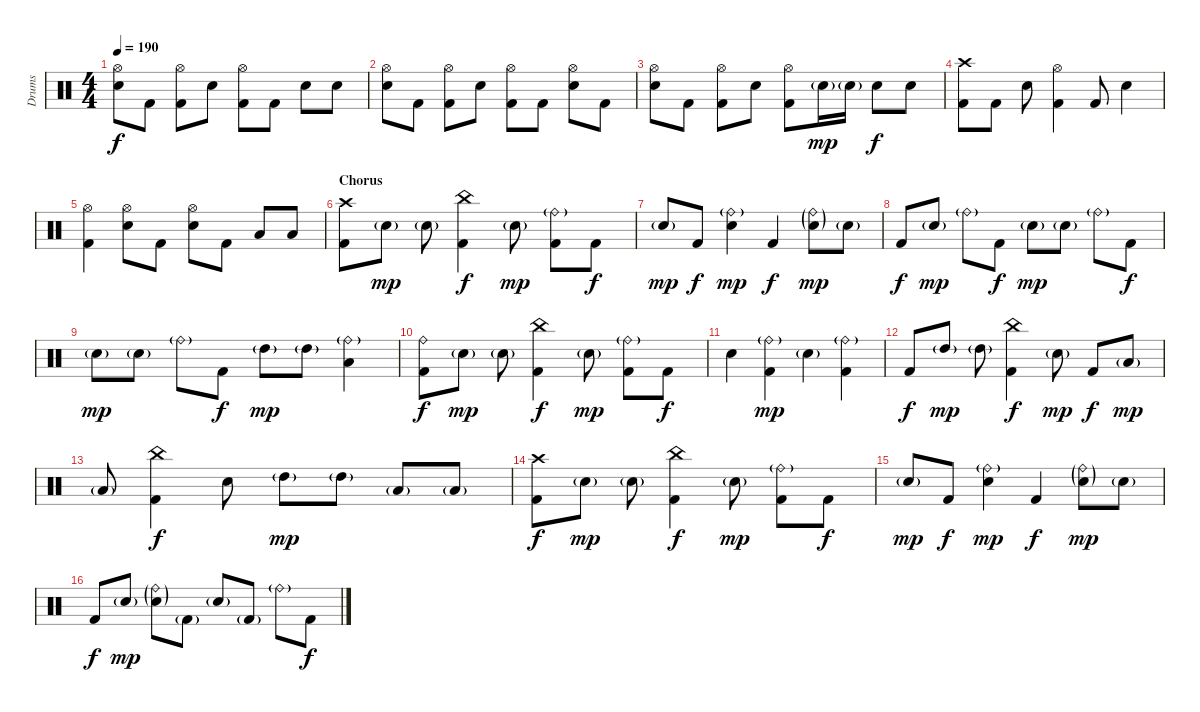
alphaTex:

\track ("Drums" "Drums") {instrument percussion}
\staff {score}
\articulation defaults
\ts (4 4)
\tempo 190
\clef neutral
\ks c
("Hi-Hat (open)" "Snare (hit) 2").8{dy f} "Kick (hit) 2".8 ("Hi-Hat (open)" "Kick (hit) 2").8 "Snare (hit) 2".8 ("Hi-Hat (open)" "Kick (hit) 2").8 "Kick (hit) 2".8 "Snare (hit) 2".8 "Snare (hit) 2".8 |
("Hi-Hat (open)" "Snare (hit) 2").8 "Kick (hit) 2".8 ("Hi-Hat (open)" "Kick (hit) 2").8 "Snare (hit) 2".8 ("Hi-Hat (open)" "Kick (hit) 2").8 "Kick (hit) 2".8 ("Hi-Hat (open)" "Snare (hit) 2").8 "Kick (hit) 2".8 |
("Hi-Hat (open)" "Snare (hit) 2").8 "Kick (hit) 2".8 ("Hi-Hat (open)" "Kick (hit) 2").8 "Snare (hit) 2".8 ("Hi-Hat (open)" "Kick (hit) 2").8 "Snare (hit) 2"{g}.16{dy mp} "Snare (hit) 2"{g}.16 "Snare (hit) 2".8{dy f} "Snare (hit) 2".8 |
("Crash high (hit)" "Kick (hit) 2").8 "Kick (hit) 2".8 "Snare (hit) 2".8 ("Hi-Hat (open)" "Kick (hit) 2").4 "Kick (hit) 2".8 "Snare (hit) 2".4 |
("Hi-Hat (open)" "Kick (hit) 2").4 ("Hi-Hat (open)" "Snare (hit) 2").8 "Kick (hit) 2".8 ("Hi-Hat (open)" "Snare (hit) 2").8 "Kick (hit) 2".8 "Low Tom (hit)".8 "Low Tom (hit)".8 |
\section ("" "Chorus")
("Crash high (hit)" "Kick (hit) 2").8 "Snare (hit) 2"{g}.8{dy mp} "Snare (hit) 2"{g}.8 ("China (hit)" "Kick (hit) 2").4{dy f} "Snare (hit) 2"{g}.8{dy mp} ("Ride (bell)"{g} "Kick (hit) 2").8 "Kick (hit) 2".8{dy f} |
"Snare (hit) 2"{g}.8{dy mp} "Kick (hit) 2".8{dy f} ("Ride (bell)"{g} "Snare (hit) 2").4{dy mp} "Kick (hit) 2".4{dy f} ("Ride (bell)"{g} "Snare (hit) 2"{g}).8{dy mp} "Snare (hit) 2"{g}.8 |
"Kick (hit) 2".8{dy f} "Snare (hit) 2"{g}.8{dy mp} "Ride (bell)"{g}.8 "Kick (hit) 2".8{dy f} "Snare (hit) 2"{g}.8{dy mp} "Snare (hit) 2"{g}.8 "Ride (bell)"{g}.8 "Kick (hit) 2".8{dy f} |
"Snare (hit) 2"{g}.8{dy mp} "Snare (hit) 2"{g}.8 "Ride (bell)"{g}.8 "Kick (hit) 2".8{dy f} "High Tom (hit)"{g}.8{dy mp} "High Tom (hit)"{g}.8 ("Ride (bell)"{g} "Low Tom (hit)").4 |
("Ride (bell)" "Kick (hit) 2").8{dy f} "Snare (hit) 2"{g}.8{dy mp} "Snare (hit) 2"{g}.8 ("China (hit)" "Kick (hit) 2").4{dy f} "Snare (hit) 2"{g}.8{dy mp} ("Ride (bell)"{g} "Kick (hit) 2").8 "Kick (hit) 2".8{dy f} |
"Snare (hit) 2".4 ("Ride (bell)"{g} "Kick (hit) 2").4{dy mp} "Snare (hit) 2"{g}.4 ("Ride (bell)"{g} "Kick (hit) 2").4 |
"Kick (hit) 2".8{dy f} "High Tom (hit)"{g}.8{dy mp} "High Tom (hit)"{g}.8 ("China (hit)" "Kick (hit) 2").4{dy f} "Snare (hit) 2"{g}.8{dy mp} "Kick (hit) 2".8{dy f} "Low Tom (hit)"{g}.8{dy mp} |
"Low Tom (hit)"{g}.8 ("China (hit)" "Kick (hit) 2").4{dy f} "Snare (hit) 2".8 "High Tom (hit)"{g}.8{dy mp} "High Tom (hit)"{g}.8 "Low Tom (hit)"{g}.8 "Low Tom (hit)"{g}.8 |
("Crash high (hit)" "Kick (hit) 2").8{dy f} "Snare (hit) 2"{g}.8{dy mp} "Snare (hit) 2"{g}.8 ("China (hit)" "Kick (hit) 2").4{dy f} "Snare (hit) 2"{g}.8{dy mp} ("Ride (bell)"{g} "Kick (hit) 2").8 "Kick (hit) 2".8{dy f} |
"Snare (hit) 2"{g}.8{dy mp} "Kick (hit) 2".8{dy f} ("Ride (bell)"{g} "Snare (hit) 2").4{dy mp} "Kick (hit) 2".4{dy f} ("Ride (bell)"{g} "Snare (hit) 2"{g}).8{dy mp} "Snare (hit) 2"{g}.8 |
"Kick (hit) 2".8{dy f} "Snare (hit) 2"{g}.8{dy mp} ("Ride (bell)"{g} "Snare (hit) 2"{g}).8 "Kick (hit) 2"{g}.8 "Snare (hit) 2"{g}.8 "Kick (hit) 2"{g}.8 "Ride (bell)"{g}.8 "Kick (hit) 2".8{dy f}
